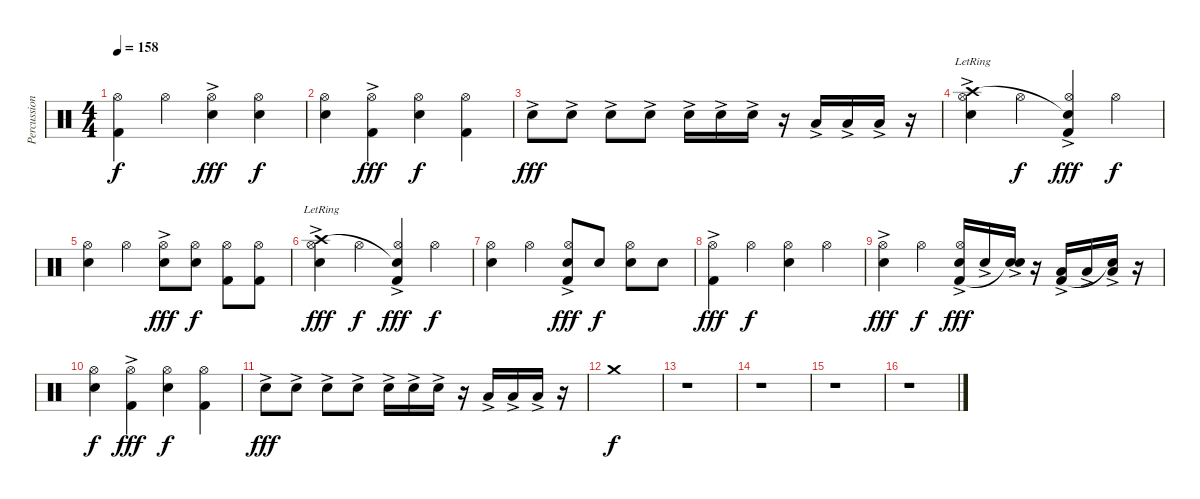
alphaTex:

\track ("Percussion" "Percussion") {instrument percussion}
\staff {score}
\articulation defaults
\ts (4 4)
\tempo 158
\clef neutral
\ks c
("Kick (hit) 2" "Hi-Hat (open)").4{dy f} "Hi-Hat (open)".4 ("Snare (hit) 2"{ac} "Hi-Hat (open)").4{dy fff} ("Snare (hit) 2" "Hi-Hat (open)").4{dy f} |
("Snare (hit) 2" "Hi-Hat (open)").4 ("Kick (hit) 2"{ac} "Hi-Hat (open)").4{dy fff} ("Snare (hit) 2" "Hi-Hat (open)").4{dy f} ("Kick (hit) 2" "Hi-Hat (open)").4 |
"Snare (hit) 2"{ac}.8{dy fff} "Snare (hit) 2"{ac}.8 "Snare (hit) 2"{ac}.8 "Snare (hit) 2"{ac}.8 "Electric Snare (hit)"{ac}.16 "Electric Snare (hit)"{ac}.16 "Electric Snare (hit)"{ac}.16 r.16 "Low Floor Tom (hit)"{ac}.16 "Low Floor Tom (hit)"{ac}.16 "Low Floor Tom (hit)"{ac}.16 r.16 |
("Snare (hit) 2" "Crash high (hit)"{ac lr} "Hi-Hat (open)").4 "Hi-Hat (open)".4{dy f} ("Kick (hit) 2"{ac} "Snare (hit)"{t} "Hi-Hat (open)").4{dy fff} "Hi-Hat (open)".4{dy f} |
("Snare (hit) 2" "Hi-Hat (open)").4 "Hi-Hat (open)".4 ("Snare (hit) 2"{ac} "Hi-Hat (open)").8{dy fff} ("Snare (hit) 2" "Hi-Hat (open)").8{dy f} ("Kick (hit) 2" "Hi-Hat (open)").8 ("Kick (hit) 2" "Hi-Hat (open)").8 |
("Snare (hit) 2"{ac} "Crash high (hit)"{ac lr} "Hi-Hat (open)").4{dy fff} "Hi-Hat (open)".4{dy f} ("Kick (hit) 2"{ac} "Snare (hit)"{t} "Hi-Hat (open)").4{dy fff} "Hi-Hat (open)".4{dy f} |
("Snare (hit) 2" "Hi-Hat (open)").4 "Hi-Hat (open)".4 ("Snare (hit) 2"{ac} "Kick (hit) 2" "Hi-Hat (open)").8{dy fff} "Snare (hit) 2".8{dy f} ("Snare (hit) 2" "Hi-Hat (open)").8 "Snare (hit) 2".8 |
("Kick (hit) 2"{ac} "Hi-Hat (open)").4{dy fff} "Hi-Hat (open)".4{dy f} ("Snare (hit) 2" "Hi-Hat (open)").4 "Hi-Hat (open)".4 |
("Snare (hit) 2"{ac} "Hi-Hat (open)").4{dy fff} "Hi-Hat (open)".4{dy f} ("Snare (hit) 2"{ac} "Kick (hit) 2" "Hi-Hat (open)").16{dy fff} "Snare (hit) 2"{ac}.16 ("Snare (hit) 2"{ac} "Snare (hit)"{t}).16 r.16 ("Low Floor Tom (hit)"{ac} "Kick (hit) 2").16 "Low Floor Tom (hit)"{ac}.16 ("Low Floor Tom (hit)"{ac} "Snare (hit)"{t}).16 r.16 |
("Snare (hit) 2" "Hi-Hat (open)").4{dy f} ("Kick (hit) 2"{ac} "Hi-Hat (open)").4{dy fff} ("Snare (hit) 2" "Hi-Hat (open)").4{dy f} ("Kick (hit) 2" "Hi-Hat (open)").4 |
"Snare (hit) 2"{ac}.8{dy fff} "Snare (hit) 2"{ac}.8 "Snare (hit) 2"{ac}.8 "Snare (hit) 2"{ac}.8 "Electric Snare (hit)"{ac}.16 "Electric Snare (hit)"{ac}.16 "Electric Snare (hit)"{ac}.16 r.16 "Low Floor Tom (hit)"{ac}.16 "Low Floor Tom (hit)"{ac}.16 "Low Floor Tom (hit)"{ac}.16 r.16 |
"Crash medium (hit)".1{dy f} |
r.1 |
r.1 |
r.1 |
r.1
